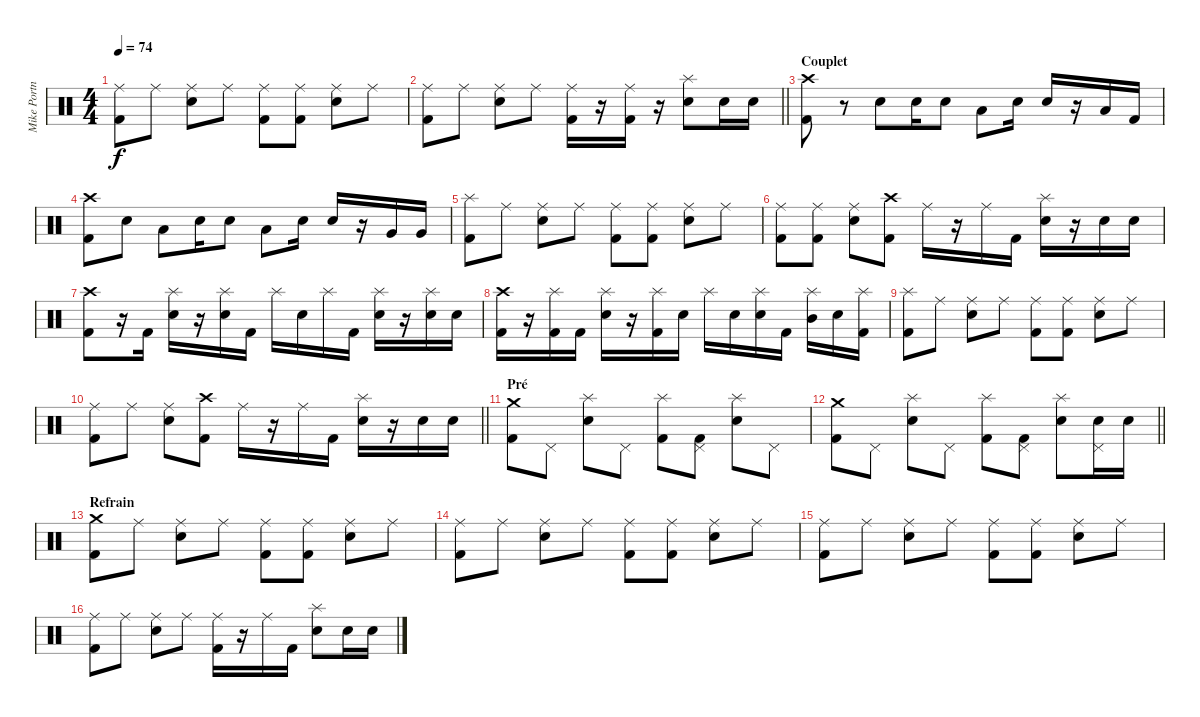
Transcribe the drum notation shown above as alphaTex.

\track ("Mike Portnoy" "Mike Portn") {instrument percussion}
\staff {score}
\articulation defaults
\ts (4 4)
\tempo 74
\clef neutral
\ks c
("Ride (middle)" "Kick (hit) 2").8{dy f} "Ride (middle)".8 ("Ride (middle)" "Electric Snare (hit)").8 "Ride (middle)".8 ("Ride (middle)" "Kick (hit) 2").8 ("Ride (middle)" "Kick (hit) 2").8 ("Ride (middle)" "Electric Snare (hit)").8 "Ride (middle)".8 |
\barLineRight lightlight
("Ride (middle)" "Kick (hit) 2").8 "Ride (middle)".8 ("Ride (middle)" "Electric Snare (hit)").8 "Ride (middle)".8 ("Ride (middle)" "Kick (hit) 2").16 r.16 ("Ride (middle)" "Kick (hit) 2").16 r.16 ("Splash (hit)" "Electric Snare (hit)").8 "Electric Snare (hit)".16 "Electric Snare (hit)".16 |
\section ("" "Couplet")
("Crash high (hit)" "Kick (hit) 2").8 r.8 "Electric Snare (hit)".8 "Electric Snare (hit)".16 "Electric Snare (hit)".8 "Low Tom (hit)".8 "Electric Snare (hit)".16 "Electric Snare (hit)".16 r.16 "Low Tom (hit)".16 "Kick (hit) 2".16 |
("Crash high (hit)" "Kick (hit) 2").8 "Electric Snare (hit)".8 "Low Tom (hit)".8 "Electric Snare (hit)".16 "Electric Snare (hit)".8 "Low Tom (hit)".8 "Electric Snare (hit)".16 "Electric Snare (hit)".16 r.16 "Very Low Tom (hit)".16 "Very Low Tom (hit)".16 |
("Splash (hit)" "Kick (hit) 2").8 "Ride (middle)".8 ("Ride (middle)" "Electric Snare (hit)").8 "Ride (middle)".8 ("Ride (middle)" "Kick (hit) 2").8 ("Ride (middle)" "Kick (hit) 2").8 ("Ride (middle)" "Electric Snare (hit)").8 "Ride (middle)".8 |
("Ride (middle)" "Kick (hit) 2").8 ("Ride (middle)" "Kick (hit) 2").8 ("Ride (middle)" "Electric Snare (hit)").8 ("Crash high (hit)" "Kick (hit) 2").8 "Ride (middle)".16 r.16 "Ride (middle)".16 "Kick (hit) 2".16 ("Splash (hit)" "Electric Snare (hit)").16 r.16 "Electric Snare (hit)".16 "Electric Snare (hit)".16 |
("Crash high (hit)" "Kick (hit) 2").8 r.16 "Kick (hit) 2".16 ("Splash (hit)" "Electric Snare (hit)").16 r.16 ("Splash (hit)" "Electric Snare (hit)").16 "Kick (hit) 2".16 "Splash (hit)".16 "Electric Snare (hit)".16 "Splash (hit)".16 "Kick (hit) 2".16 ("Splash (hit)" "Electric Snare (hit)").16 r.16 ("Splash (hit)" "Electric Snare (hit)").16 "Electric Snare (hit)".16 |
("Crash high (hit)" "Kick (hit) 2").16 r.16 ("Splash (hit)" "Kick (hit) 2").16 "Kick (hit) 2".16 ("Splash (hit)" "Electric Snare (hit)").16 r.16 ("Splash (hit)" "Kick (hit) 2").16 "Electric Snare (hit)".16 "Splash (hit)".16 "Electric Snare (hit)".16 ("Splash (hit)" "Electric Snare (hit)").16 "Kick (hit) 2".16 ("Splash (hit)" "Mid Tom (hit)").16 "Electric Snare (hit)".16 ("Splash (hit)" "Kick (hit) 2").16 |
("Splash (hit)" "Kick (hit) 2").8 "Ride (middle)".8 ("Ride (middle)" "Electric Snare (hit)").8 "Ride (middle)".8 ("Ride (middle)" "Kick (hit) 2").8 ("Ride (middle)" "Kick (hit) 2").8 ("Ride (middle)" "Electric Snare (hit)").8 "Ride (middle)".8 |
\barLineRight lightlight
("Ride (middle)" "Kick (hit) 2").8 "Ride (middle)".8 ("Ride (middle)" "Electric Snare (hit)").8 ("Crash high (hit)" "Kick (hit) 2").8 "Ride (middle)".16 r.16 "Ride (middle)".16 "Kick (hit) 2".16 ("Splash (hit)" "Electric Snare (hit)").16 r.16 "Electric Snare (hit)".16 "Electric Snare (hit)".16 |
\section ("" "Pré")
("Crash medium (hit)" "Kick (hit) 2").8 "Pedal Hi-Hat (hit)".8 ("Splash (hit)" "Electric Snare (hit)").8 "Pedal Hi-Hat (hit)".8 ("Splash (hit)" "Kick (hit) 2").8 ("Pedal Hi-Hat (hit)" "Kick (hit) 2").8 ("Splash (hit)" "Electric Snare (hit)").8 "Pedal Hi-Hat (hit)".8 |
\barLineRight lightlight
("Crash medium (hit)" "Kick (hit) 2").8 "Pedal Hi-Hat (hit)".8 ("Splash (hit)" "Electric Snare (hit)").8 "Pedal Hi-Hat (hit)".8 ("Splash (hit)" "Kick (hit) 2").8 ("Pedal Hi-Hat (hit)" "Kick (hit) 2").8 ("Splash (hit)" "Electric Snare (hit)").8 ("Pedal Hi-Hat (hit)" "Electric Snare (hit)").16 "Electric Snare (hit)".16 |
\section ("" "Refrain")
("Crash medium (hit)" "Kick (hit) 2").8 "Ride (middle)".8 ("Ride (middle)" "Electric Snare (hit)").8 "Ride (middle)".8 ("Ride (middle)" "Kick (hit) 2").8 ("Ride (middle)" "Kick (hit) 2").8 ("Ride (middle)" "Electric Snare (hit)").8 "Ride (middle)".8 |
("Ride (middle)" "Kick (hit) 2").8 "Ride (middle)".8 ("Ride (middle)" "Electric Snare (hit)").8 "Ride (middle)".8 ("Ride (middle)" "Kick (hit) 2").8 ("Ride (middle)" "Kick (hit) 2").8 ("Ride (middle)" "Electric Snare (hit)").8 "Ride (middle)".8 |
("Ride (middle)" "Kick (hit) 2").8 "Ride (middle)".8 ("Ride (middle)" "Electric Snare (hit)").8 "Ride (middle)".8 ("Ride (middle)" "Kick (hit) 2").8 ("Ride (middle)" "Kick (hit) 2").8 ("Ride (middle)" "Electric Snare (hit)").8 "Ride (middle)".8 |
("Ride (middle)" "Kick (hit) 2").8 "Ride (middle)".8 ("Ride (middle)" "Electric Snare (hit)").8 "Ride (middle)".8 ("Ride (middle)" "Kick (hit) 2").16 r.16 "Ride (middle)".16 "Kick (hit) 2".16 ("Splash (hit)" "Electric Snare (hit)").8 "Electric Snare (hit)".16 "Electric Snare (hit)".16
